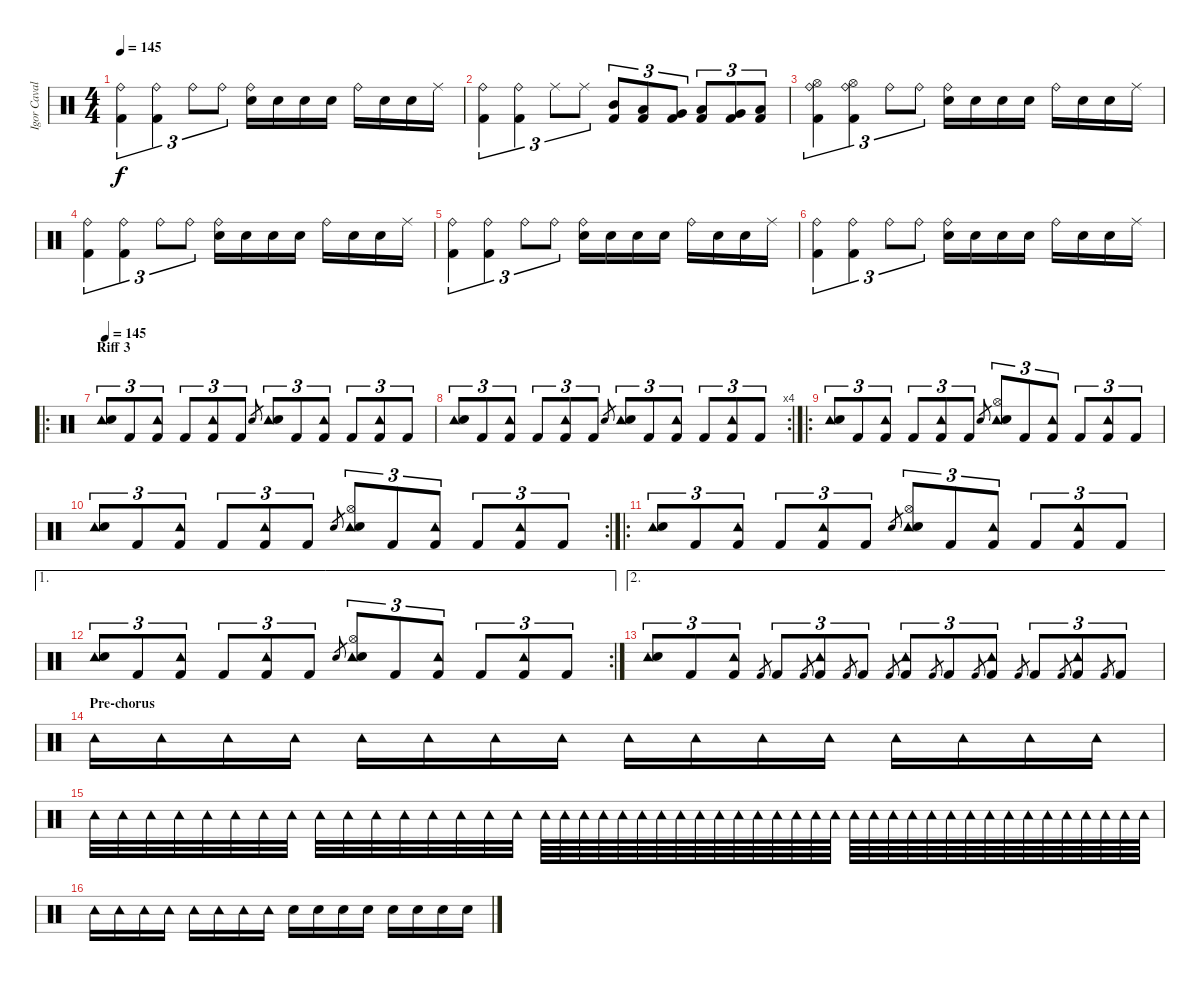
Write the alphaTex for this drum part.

\track ("Igor Cavalera - Drums" "Igor Caval") {instrument percussion}
\staff {score}
\articulation defaults
\ts (4 4)
\tempo 145
\clef neutral
\ks c
("Ride (bell)" "Kick (hit) 2").4{tu (3 2) dy f} ("Ride (bell)" "Kick (hit) 2").4{tu (3 2)} "Ride (bell)".8{tu (3 2)} "Ride (bell)".8{tu (3 2)} ("Ride (bell)" "Electric Snare (hit)").16 "Snare (hit)".16 "Snare (hit)".16 "Snare (hit)".16 "Ride (bell)".16 "Snare (hit)".16 "Snare (hit)".16 "Ride (middle)".16 |
("Ride (bell)" "Kick (hit) 2").4{tu (3 2)} ("Ride (bell)" "Kick (hit) 2").4{tu (3 2)} "Ride (middle)".8{tu (3 2)} "Ride (middle)".8{tu (3 2)} ("Mid Tom (hit)" "Kick (hit) 2").8{tu (3 2)} ("Low Tom (hit)" "Kick (hit) 2").8{tu (3 2)} ("Very Low Tom (hit)" "Kick (hit) 2").8{tu (3 2)} ("Low Tom (hit)" "Kick (hit) 2").8{tu (3 2)} ("Very Low Tom (hit)" "Kick (hit) 2").8{tu (3 2)} ("Low Floor Tom (hit)" "Kick (hit) 2").8{tu (3 2)} |
("Ride (bell)" "Hi-Hat (open)" "Kick (hit) 2").4{tu (3 2)} ("Ride (bell)" "Hi-Hat (open)" "Kick (hit) 2").4{tu (3 2)} "Ride (bell)".8{tu (3 2)} "Ride (bell)".8{tu (3 2)} ("Ride (bell)" "Electric Snare (hit)").16 "Snare (hit)".16 "Snare (hit)".16 "Snare (hit)".16 "Ride (bell)".16 "Snare (hit)".16 "Snare (hit)".16 "Ride (middle)".16 |
("Ride (bell)" "Kick (hit) 2").4{tu (3 2)} ("Ride (bell)" "Kick (hit) 2").4{tu (3 2)} "Ride (bell)".8{tu (3 2)} "Ride (bell)".8{tu (3 2)} ("Ride (bell)" "Electric Snare (hit)").16 "Snare (hit)".16 "Snare (hit)".16 "Snare (hit)".16 "Ride (bell)".16 "Snare (hit)".16 "Snare (hit)".16 "Ride (middle)".16 |
("Ride (bell)" "Kick (hit) 2").4{tu (3 2)} ("Ride (bell)" "Kick (hit) 2").4{tu (3 2)} "Ride (bell)".8{tu (3 2)} "Ride (bell)".8{tu (3 2)} ("Ride (bell)" "Electric Snare (hit)").16 "Snare (hit)".16 "Snare (hit)".16 "Snare (hit)".16 "Ride (bell)".16 "Snare (hit)".16 "Snare (hit)".16 "Ride (middle)".16 |
("Ride (bell)" "Kick (hit) 2").4{tu (3 2)} ("Ride (bell)" "Kick (hit) 2").4{tu (3 2)} "Ride (bell)".8{tu (3 2)} "Ride (bell)".8{tu (3 2)} ("Ride (bell)" "Electric Snare (hit)").16 "Snare (hit)".16 "Snare (hit)".16 "Snare (hit)".16 "Ride (bell)".16 "Snare (hit)".16 "Snare (hit)".16 "Ride (middle)".16 |
\ro
\section ("" "Riff 3")
\tempo 145
("Tambourine (hit)" "Snare (hit) 2").8{tu (3 2) volume 16 balance 8} "Kick (hit) 2".8{tu (3 2)} ("Tambourine (hit)" "Kick (hit) 2").8{tu (3 2)} "Kick (hit) 2".8{tu (3 2)} ("Tambourine (hit)" "Kick (hit) 2").8{tu (3 2)} "Kick (hit) 2".8{tu (3 2)} "Electric Snare (hit)".8{gr} ("Tambourine (hit)" "Electric Snare (hit)").8{tu (3 2)} "Kick (hit) 2".8{tu (3 2)} ("Tambourine (hit)" "Kick (hit) 2").8{tu (3 2)} "Kick (hit) 2".8{tu (3 2)} ("Tambourine (hit)" "Kick (hit) 2").8{tu (3 2)} "Kick (hit) 2".8{tu (3 2)} |
\rc 4
("Tambourine (hit)" "Snare (hit) 2").8{tu (3 2)} "Kick (hit) 2".8{tu (3 2)} ("Tambourine (hit)" "Kick (hit) 2").8{tu (3 2)} "Kick (hit) 2".8{tu (3 2)} ("Tambourine (hit)" "Kick (hit) 2").8{tu (3 2)} "Kick (hit) 2".8{tu (3 2)} "Electric Snare (hit)".8{gr} ("Tambourine (hit)" "Electric Snare (hit)").8{tu (3 2)} "Kick (hit) 2".8{tu (3 2)} ("Tambourine (hit)" "Kick (hit) 2").8{tu (3 2)} "Kick (hit) 2".8{tu (3 2)} ("Tambourine (hit)" "Kick (hit) 2").8{tu (3 2)} "Kick (hit) 2".8{tu (3 2)} |
\ro
("Tambourine (hit)" "Snare (hit) 2").8{tu (3 2)} "Kick (hit) 2".8{tu (3 2)} ("Tambourine (hit)" "Kick (hit) 2").8{tu (3 2)} "Kick (hit) 2".8{tu (3 2)} ("Tambourine (hit)" "Kick (hit) 2").8{tu (3 2)} "Kick (hit) 2".8{tu (3 2)} "Electric Snare (hit)".8{gr} ("Tambourine (hit)" "Hi-Hat (open)" "Electric Snare (hit)").8{tu (3 2)} "Kick (hit) 2".8{tu (3 2)} ("Tambourine (hit)" "Kick (hit) 2").8{tu (3 2)} "Kick (hit) 2".8{tu (3 2)} ("Tambourine (hit)" "Kick (hit) 2").8{tu (3 2)} "Kick (hit) 2".8{tu (3 2)} |
\rc 2
("Tambourine (hit)" "Snare (hit) 2").8{tu (3 2)} "Kick (hit) 2".8{tu (3 2)} ("Tambourine (hit)" "Kick (hit) 2").8{tu (3 2)} "Kick (hit) 2".8{tu (3 2)} ("Tambourine (hit)" "Kick (hit) 2").8{tu (3 2)} "Kick (hit) 2".8{tu (3 2)} "Electric Snare (hit)".8{gr} ("Tambourine (hit)" "Hi-Hat (open)" "Electric Snare (hit)").8{tu (3 2)} "Kick (hit) 2".8{tu (3 2)} ("Tambourine (hit)" "Kick (hit) 2").8{tu (3 2)} "Kick (hit) 2".8{tu (3 2)} ("Tambourine (hit)" "Kick (hit) 2").8{tu (3 2)} "Kick (hit) 2".8{tu (3 2)} |
\ro
("Tambourine (hit)" "Snare (hit) 2").8{tu (3 2)} "Kick (hit) 2".8{tu (3 2)} ("Tambourine (hit)" "Kick (hit) 2").8{tu (3 2)} "Kick (hit) 2".8{tu (3 2)} ("Tambourine (hit)" "Kick (hit) 2").8{tu (3 2)} "Kick (hit) 2".8{tu (3 2)} "Electric Snare (hit)".8{gr} ("Tambourine (hit)" "Hi-Hat (open)" "Electric Snare (hit)").8{tu (3 2)} "Kick (hit) 2".8{tu (3 2)} ("Tambourine (hit)" "Kick (hit) 2").8{tu (3 2)} "Kick (hit) 2".8{tu (3 2)} ("Tambourine (hit)" "Kick (hit) 2").8{tu (3 2)} "Kick (hit) 2".8{tu (3 2)} |
\ae 1
\rc 2
("Tambourine (hit)" "Snare (hit) 2").8{tu (3 2)} "Kick (hit) 2".8{tu (3 2)} ("Tambourine (hit)" "Kick (hit) 2").8{tu (3 2)} "Kick (hit) 2".8{tu (3 2)} ("Tambourine (hit)" "Kick (hit) 2").8{tu (3 2)} "Kick (hit) 2".8{tu (3 2)} "Electric Snare (hit)".8{gr} ("Tambourine (hit)" "Hi-Hat (open)" "Electric Snare (hit)").8{tu (3 2)} "Kick (hit) 2".8{tu (3 2)} ("Tambourine (hit)" "Kick (hit) 2").8{tu (3 2)} "Kick (hit) 2".8{tu (3 2)} ("Tambourine (hit)" "Kick (hit) 2").8{tu (3 2)} "Kick (hit) 2".8{tu (3 2)} |
\ae 2
("Tambourine (hit)" "Snare (hit) 2").8{tu (3 2)} "Kick (hit) 2".8{tu (3 2)} ("Tambourine (hit)" "Kick (hit) 2").8{tu (3 2)} "Kick (hit) 2".8{gr} "Kick (hit) 2".8{tu (3 2)} "Kick (hit) 2".8{gr} ("Tambourine (hit)" "Kick (hit) 2").8{tu (3 2)} "Kick (hit) 2".8{gr} "Kick (hit) 2".8{tu (3 2)} "Kick (hit) 2".8{gr} ("Tambourine (hit)" "Kick (hit) 2").8{tu (3 2)} "Kick (hit) 2".8{gr} "Kick (hit) 2".8{tu (3 2)} "Kick (hit) 2".8{gr} ("Tambourine (hit)" "Kick (hit) 2").8{tu (3 2)} "Kick (hit) 2".8{gr} "Kick (hit) 2".8{tu (3 2)} "Kick (hit) 2".8{gr} ("Tambourine (hit)" "Kick (hit) 2").8{tu (3 2)} "Kick (hit) 2".8{gr} "Kick (hit) 2".8{tu (3 2)} |
\section ("" "Pre-chorus")
"Tambourine (hit)".16{volume 10 balance 8} "Tambourine (hit)".16 "Tambourine (hit)".16 "Tambourine (hit)".16 "Tambourine (hit)".16 "Tambourine (hit)".16 "Tambourine (hit)".16 "Tambourine (hit)".16 "Tambourine (hit)".16 "Tambourine (hit)".16 "Tambourine (hit)".16 "Tambourine (hit)".16 "Tambourine (hit)".16 "Tambourine (hit)".16 "Tambourine (hit)".16 "Tambourine (hit)".16 |
"Tambourine (hit)".32 "Tambourine (hit)".32 "Tambourine (hit)".32 "Tambourine (hit)".32 "Tambourine (hit)".32 "Tambourine (hit)".32 "Tambourine (hit)".32 "Tambourine (hit)".32 "Tambourine (hit)".32 "Tambourine (hit)".32 "Tambourine (hit)".32 "Tambourine (hit)".32 "Tambourine (hit)".32 "Tambourine (hit)".32 "Tambourine (hit)".32 "Tambourine (hit)".32 "Tambourine (hit)".64 "Tambourine (hit)".64 "Tambourine (hit)".64 "Tambourine (hit)".64 "Tambourine (hit)".64 "Tambourine (hit)".64 "Tambourine (hit)".64 "Tambourine (hit)".64 "Tambourine (hit)".64 "Tambourine (hit)".64 "Tambourine (hit)".64 "Tambourine (hit)".64 "Tambourine (hit)".64 "Tambourine (hit)".64 "Tambourine (hit)".64 "Tambourine (hit)".64 "Tambourine (hit)".64 "Tambourine (hit)".64 "Tambourine (hit)".64 "Tambourine (hit)".64 "Tambourine (hit)".64 "Tambourine (hit)".64 "Tambourine (hit)".64 "Tambourine (hit)".64 "Tambourine (hit)".64 "Tambourine (hit)".64 "Tambourine (hit)".64 "Tambourine (hit)".64 "Tambourine (hit)".64 "Tambourine (hit)".64 "Tambourine (hit)".64 "Tambourine (hit)".64 |
"Tambourine (hit)".16{volume 0} "Tambourine (hit)".16 "Tambourine (hit)".16 "Tambourine (hit)".16 "Tambourine (hit)".16 "Tambourine (hit)".16 "Tambourine (hit)".16 "Tambourine (hit)".16 "Snare (hit)".16 "Snare (hit)".16 "Snare (hit)".16 "Snare (hit)".16 "Snare (hit)".16 "Snare (hit)".16 "Snare (hit)".16 "Snare (hit)".16
